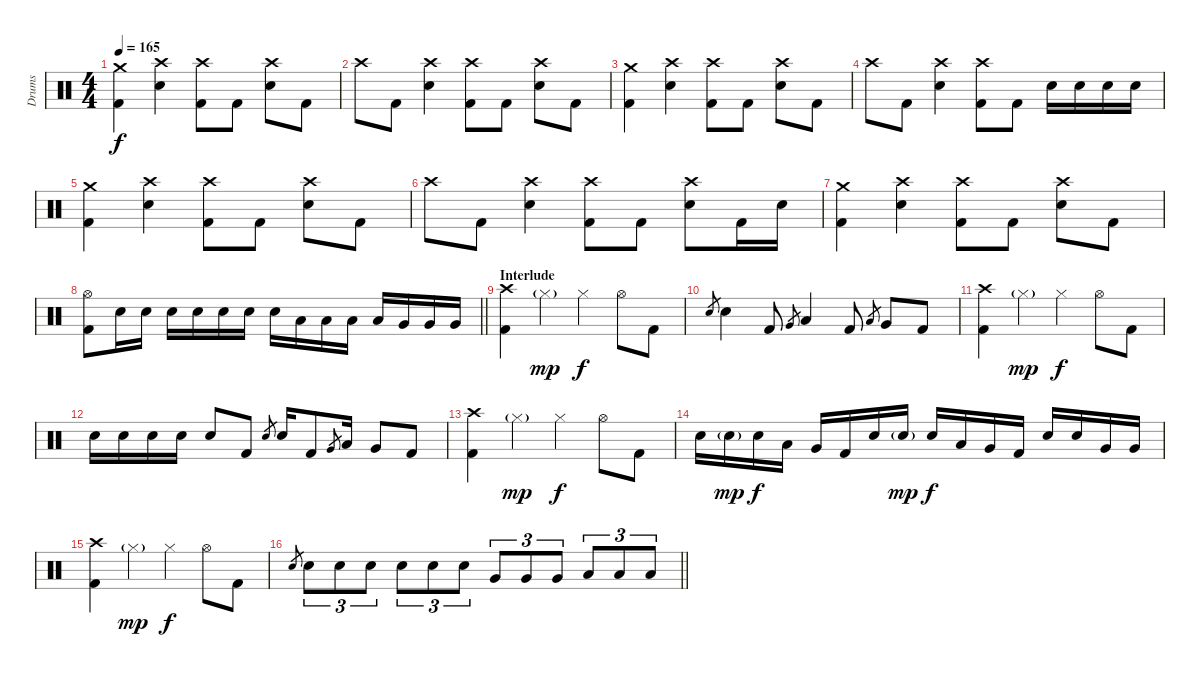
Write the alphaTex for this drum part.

\track ("Drums" "Drums") {instrument percussion}
\staff {score}
\articulation defaults
\ts (4 4)
\tempo 165
\clef neutral
\ks c
("Crash medium (hit)" "Kick (hit) 2").4{dy f} ("Crash high (hit)" "Electric Snare (hit)").4 ("Crash high (hit)" "Kick (hit) 2").8 "Kick (hit) 2".8 ("Crash high (hit)" "Electric Snare (hit)").8 "Kick (hit) 2".8 |
"Crash high (hit)".8 "Kick (hit) 2".8 ("Crash high (hit)" "Electric Snare (hit)").4 ("Crash high (hit)" "Kick (hit) 2").8 "Kick (hit) 2".8 ("Crash high (hit)" "Electric Snare (hit)").8 "Kick (hit) 2".8 |
("Crash medium (hit)" "Kick (hit) 2").4 ("Crash high (hit)" "Electric Snare (hit)").4 ("Crash high (hit)" "Kick (hit) 2").8 "Kick (hit) 2".8 ("Crash high (hit)" "Electric Snare (hit)").8 "Kick (hit) 2".8 |
"Crash high (hit)".8 "Kick (hit) 2".8 ("Crash high (hit)" "Electric Snare (hit)").4 ("Crash high (hit)" "Kick (hit) 2").8 "Kick (hit) 2".8 "Electric Snare (hit)".16 "Electric Snare (hit)".16 "Electric Snare (hit)".16 "Electric Snare (hit)".16 |
("Crash medium (hit)" "Kick (hit) 2").4 ("Crash high (hit)" "Electric Snare (hit)").4 ("Crash high (hit)" "Kick (hit) 2").8 "Kick (hit) 2".8 ("Crash high (hit)" "Electric Snare (hit)").8 "Kick (hit) 2".8 |
"Crash high (hit)".8 "Kick (hit) 2".8 ("Crash high (hit)" "Electric Snare (hit)").4 ("Crash high (hit)" "Kick (hit) 2").8 "Kick (hit) 2".8 ("Crash high (hit)" "Electric Snare (hit)").8 "Kick (hit) 2".16 "Electric Snare (hit)".16 |
("Crash medium (hit)" "Kick (hit) 2").4 ("Crash high (hit)" "Electric Snare (hit)").4 ("Crash high (hit)" "Kick (hit) 2").8 "Kick (hit) 2".8 ("Crash high (hit)" "Electric Snare (hit)").8 "Kick (hit) 2".8 |
\barLineRight lightlight
("Hi-Hat (open)" "Kick (hit) 2").8 "Electric Snare (hit)".16 "Electric Snare (hit)".16 "Electric Snare (hit)".16 "Electric Snare (hit)".16 "Electric Snare (hit)".16 "Electric Snare (hit)".16 "Electric Snare (hit)".16 "Low Tom (hit)".16 "Low Tom (hit)".16 "Low Tom (hit)".16 "Low Tom (hit)".16 "Very Low Tom (hit)".16 "Very Low Tom (hit)".16 "Very Low Tom (hit)".16 |
\section ("" "Interlude")
("Crash high (hit)" "Kick (hit) 2").4 "Hi-Hat (closed)"{g}.4{dy mp} "Hi-Hat (closed)".4{dy f} "Hi-Hat (open)".8 "Kick (hit) 2".8 |
"Electric Snare (hit)".8{gr} "Electric Snare (hit)".4 "Kick (hit) 2".8 "Very Low Tom (hit)".8{gr} "Low Tom (hit)".4 "Kick (hit) 2".8 "Low Floor Tom (hit)".8{gr} "Very Low Tom (hit)".8 "Kick (hit) 2".8 |
("Crash high (hit)" "Kick (hit) 2").4 "Hi-Hat (closed)"{g}.4{dy mp} "Hi-Hat (closed)".4{dy f} "Hi-Hat (open)".8 "Kick (hit) 2".8 |
"Electric Snare (hit)".16 "Electric Snare (hit)".16 "Electric Snare (hit)".16 "Electric Snare (hit)".16 "Electric Snare (hit)".8 "Kick (hit) 2".8 "Electric Snare (hit)".8{gr} "Electric Snare (hit)".16 "Kick (hit) 2".8 "Very Low Tom (hit)".8{gr} "Low Tom (hit)".16 "Very Low Tom (hit)".8 "Kick (hit) 2".8 |
("Crash high (hit)" "Kick (hit) 2").4 "Hi-Hat (closed)"{g}.4{dy mp} "Hi-Hat (closed)".4{dy f} "Hi-Hat (open)".8 "Kick (hit) 2".8 |
"Electric Snare (hit)".16 "Snare (hit) 2"{g}.16{dy mp} "Snare (hit) 2".16{dy f} "Low Tom (hit)".16 "Very Low Tom (hit)".16 "Kick (hit) 2".16 "Electric Snare (hit)".16 "Snare (hit) 2"{g}.16{dy mp} "Snare (hit) 2".16{dy f} "Low Tom (hit)".16 "Very Low Tom (hit)".16 "Kick (hit) 2".16 "Electric Snare (hit)".16 "Electric Snare (hit)".16 "Very Low Tom (hit)".16 "Very Low Tom (hit)".16 |
("Crash high (hit)" "Kick (hit) 2").4 "Hi-Hat (closed)"{g}.4{dy mp} "Hi-Hat (closed)".4{dy f} "Hi-Hat (open)".8 "Kick (hit) 2".8 |
\barLineRight lightlight "Electric Snare (hit)".8{gr} "Electric Snare (hit)".8{tu (3 2)} "Electric Snare (hit)".8{tu (3 2)} "Electric Snare (hit)".8{tu (3 2)} "Electric Snare (hit)".8{tu (3 2)} "Electric Snare (hit)".8{tu (3 2)} "Electric Snare (hit)".8{tu (3 2)} "Very Low Tom (hit)".8{tu (3 2)} "Very Low Tom (hit)".8{tu (3 2)} "Very Low Tom (hit)".8{tu (3 2)} "Low Floor Tom (hit)".8{tu (3 2)} "Low Floor Tom (hit)".8{tu (3 2)} "Low Floor Tom (hit)".8{tu (3 2)}
